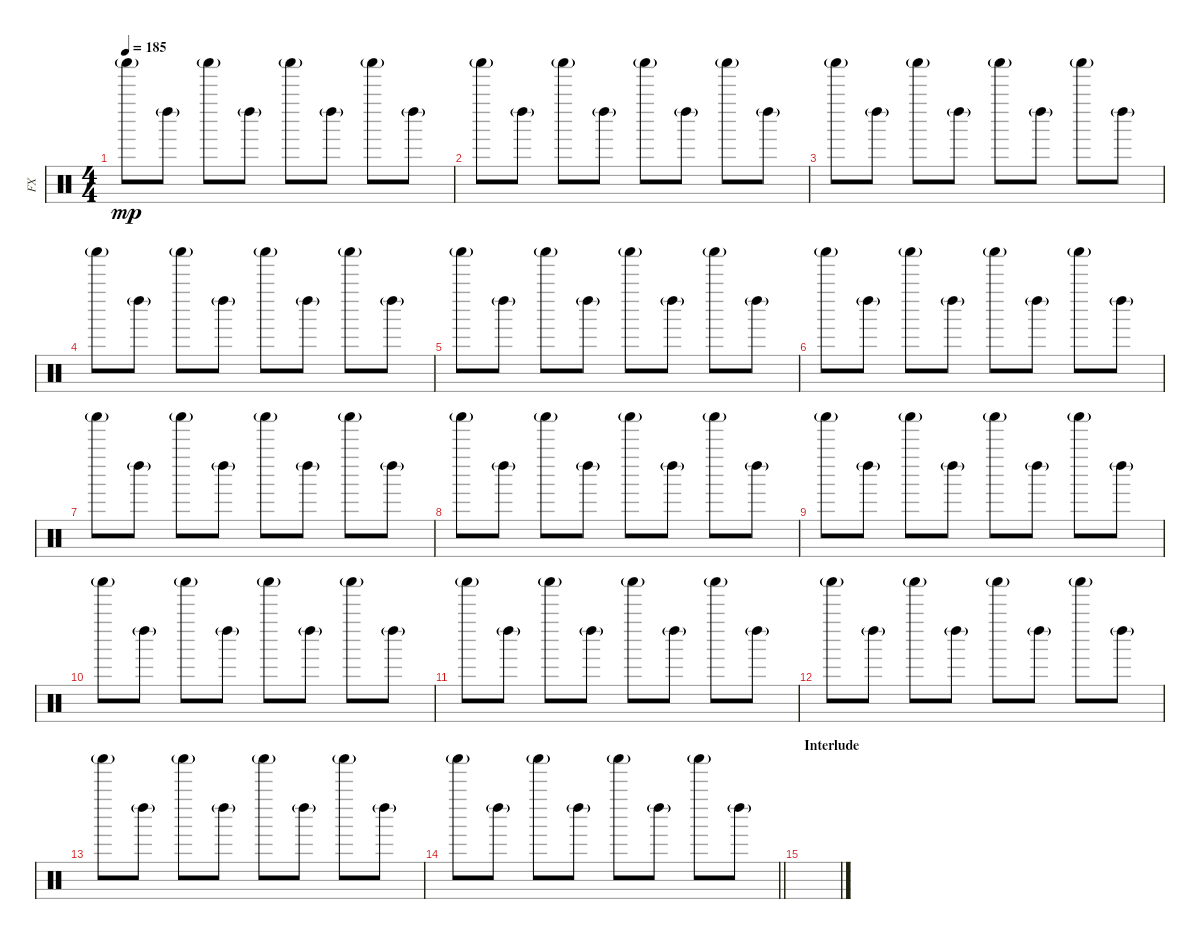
\track ("FX" "FX") {instrument percussion}
\staff {score}
\articulation defaults
\ts (4 4)
\tempo 185
\clef neutral
\ks c "Shaker (hit)"{g}.8{dy mp} "Left Maraca (hit)"{g}.8 "Shaker (hit)"{g}.8 "Left Maraca (hit)"{g}.8 "Shaker (hit)"{g}.8 "Left Maraca (hit)"{g}.8 "Shaker (hit)"{g}.8 "Left Maraca (hit)"{g}.8
|
"Shaker (hit)"{g}.8 "Left Maraca (hit)"{g}.8 "Shaker (hit)"{g}.8 "Left Maraca (hit)"{g}.8 "Shaker (hit)"{g}.8 "Left Maraca (hit)"{g}.8 "Shaker (hit)"{g}.8 "Left Maraca (hit)"{g}.8 |
"Shaker (hit)"{g}.8 "Left Maraca (hit)"{g}.8 "Shaker (hit)"{g}.8 "Left Maraca (hit)"{g}.8 "Shaker (hit)"{g}.8 "Left Maraca (hit)"{g}.8 "Shaker (hit)"{g}.8 "Left Maraca (hit)"{g}.8 |
"Shaker (hit)"{g}.8 "Left Maraca (hit)"{g}.8 "Shaker (hit)"{g}.8 "Left Maraca (hit)"{g}.8 "Shaker (hit)"{g}.8 "Left Maraca (hit)"{g}.8 "Shaker (hit)"{g}.8 "Left Maraca (hit)"{g}.8 |
"Shaker (hit)"{g}.8 "Left Maraca (hit)"{g}.8 "Shaker (hit)"{g}.8 "Left Maraca (hit)"{g}.8 "Shaker (hit)"{g}.8 "Left Maraca (hit)"{g}.8 "Shaker (hit)"{g}.8 "Left Maraca (hit)"{g}.8 |
"Shaker (hit)"{g}.8 "Left Maraca (hit)"{g}.8 "Shaker (hit)"{g}.8 "Left Maraca (hit)"{g}.8 "Shaker (hit)"{g}.8 "Left Maraca (hit)"{g}.8 "Shaker (hit)"{g}.8 "Left Maraca (hit)"{g}.8 |
"Shaker (hit)"{g}.8 "Left Maraca (hit)"{g}.8 "Shaker (hit)"{g}.8 "Left Maraca (hit)"{g}.8 "Shaker (hit)"{g}.8 "Left Maraca (hit)"{g}.8 "Shaker (hit)"{g}.8 "Left Maraca (hit)"{g}.8 |
"Shaker (hit)"{g}.8 "Left Maraca (hit)"{g}.8 "Shaker (hit)"{g}.8 "Left Maraca (hit)"{g}.8 "Shaker (hit)"{g}.8 "Left Maraca (hit)"{g}.8 "Shaker (hit)"{g}.8 "Left Maraca (hit)"{g}.8 |
"Shaker (hit)"{g}.8 "Left Maraca (hit)"{g}.8 "Shaker (hit)"{g}.8 "Left Maraca (hit)"{g}.8 "Shaker (hit)"{g}.8 "Left Maraca (hit)"{g}.8 "Shaker (hit)"{g}.8 "Left Maraca (hit)"{g}.8 |
"Shaker (hit)"{g}.8 "Left Maraca (hit)"{g}.8 "Shaker (hit)"{g}.8 "Left Maraca (hit)"{g}.8 "Shaker (hit)"{g}.8 "Left Maraca (hit)"{g}.8 "Shaker (hit)"{g}.8 "Left Maraca (hit)"{g}.8 |
"Shaker (hit)"{g}.8 "Left Maraca (hit)"{g}.8 "Shaker (hit)"{g}.8 "Left Maraca (hit)"{g}.8 "Shaker (hit)"{g}.8 "Left Maraca (hit)"{g}.8 "Shaker (hit)"{g}.8 "Left Maraca (hit)"{g}.8 |
"Shaker (hit)"{g}.8 "Left Maraca (hit)"{g}.8 "Shaker (hit)"{g}.8 "Left Maraca (hit)"{g}.8 "Shaker (hit)"{g}.8 "Left Maraca (hit)"{g}.8 "Shaker (hit)"{g}.8 "Left Maraca (hit)"{g}.8 |
"Shaker (hit)"{g}.8 "Left Maraca (hit)"{g}.8 "Shaker (hit)"{g}.8 "Left Maraca (hit)"{g}.8 "Shaker (hit)"{g}.8 "Left Maraca (hit)"{g}.8 "Shaker (hit)"{g}.8 "Left Maraca (hit)"{g}.8 |
\barLineRight lightlight "Shaker (hit)"{g}.8 "Left Maraca (hit)"{g}.8 "Shaker (hit)"{g}.8 "Left Maraca (hit)"{g}.8 "Shaker (hit)"{g}.8 "Left Maraca (hit)"{g}.8 "Shaker (hit)"{g}.8 "Left Maraca (hit)"{g}.8
|
\section ("" "Interlude")
